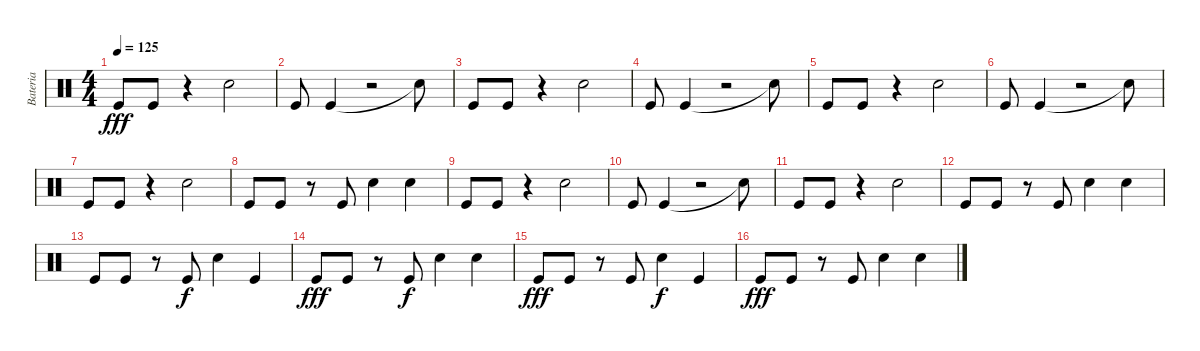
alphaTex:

\track ("Bateria" "Bateria") {instrument percussion}
\staff {score}
\articulation defaults
\ts (4 4)
\tempo 125
\clef neutral
\ks c "Kick (hit)".8{dy fff} "Kick (hit)".8
r.4 "Snare (hit) 2".2 |
"Kick (hit)".8 "Kick (hit)".4 r.2 "Snare (hit)"{t}.8 |
"Kick (hit)".8 "Kick (hit)".8 r.4 "Snare (hit) 2".2 |
"Kick (hit)".8 "Kick (hit)".4 r.2 "Snare (hit)"{t}.8 |
"Kick (hit)".8 "Kick (hit)".8 r.4 "Snare (hit) 2".2 |
"Kick (hit)".8 "Kick (hit)".4 r.2 "Snare (hit)"{t}.8 |
"Kick (hit)".8 "Kick (hit)".8 r.4 "Snare (hit) 2".2 |
"Kick (hit)".8 "Kick (hit)".8 r.8 "Kick (hit)".8 "Snare (hit) 2".4 "Snare (hit) 2".4 |
"Kick (hit)".8 "Kick (hit)".8 r.4 "Snare (hit) 2".2 |
"Kick (hit)".8 "Kick (hit)".4 r.2 "Snare (hit)"{t}.8 |
"Kick (hit)".8 "Kick (hit)".8 r.4 "Snare (hit) 2".2 |
"Kick (hit)".8 "Kick (hit)".8 r.8 "Kick (hit)".8 "Snare (hit) 2".4 "Snare (hit) 2".4 |
"Kick (hit)".8 "Kick (hit)".8 r.8 "Kick (hit)".8{dy f} "Snare (hit) 2".4 "Kick (hit)".4 |
"Kick (hit)".8{dy fff} "Kick (hit)".8 r.8 "Kick (hit)".8{dy f} "Snare (hit) 2".4 "Snare (hit) 2".4 |
"Kick (hit)".8{dy fff} "Kick (hit)".8 r.8 "Kick (hit)".8 "Snare (hit) 2".4{dy f} "Kick (hit)".4 |
"Kick (hit)".8{dy fff} "Kick (hit)".8 r.8 "Kick (hit)".8 "Snare (hit) 2".4 "Snare (hit) 2".4
